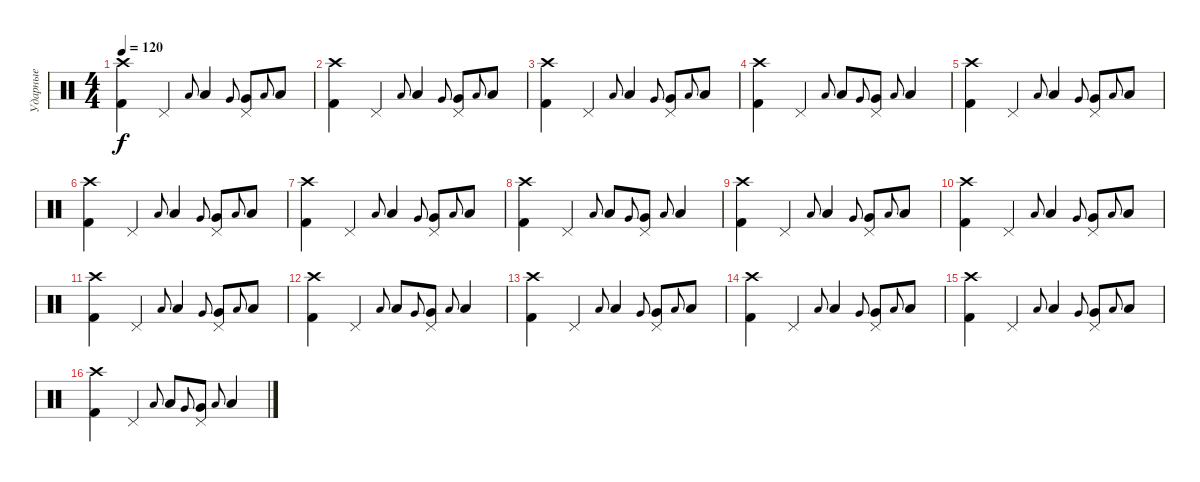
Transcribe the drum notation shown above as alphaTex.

\track ("Ударные" "Ударные") {instrument percussion}
\staff {score}
\articulation defaults
\ts (4 4)
\tempo 120
\clef neutral
\ks c
("Crash high (hit)" "Kick (hit) 2").4{dy f} "Pedal Hi-Hat (hit)".4 "Low Tom (hit)".8{gr onbeat} "Low Tom (hit)".4 "Very Low Tom (hit)".8{gr onbeat} ("Very Low Tom (hit)" "Pedal Hi-Hat (hit)").8 "Low Floor Tom (hit)".8{gr onbeat} "Low Floor Tom (hit)".8 |
("Crash high (hit)" "Kick (hit) 2").4 "Pedal Hi-Hat (hit)".4 "Low Tom (hit)".8{gr onbeat} "Low Tom (hit)".4 "Very Low Tom (hit)".8{gr onbeat} ("Very Low Tom (hit)" "Pedal Hi-Hat (hit)").8 "Low Floor Tom (hit)".8{gr onbeat} "Low Floor Tom (hit)".8 |
("Crash high (hit)" "Kick (hit) 2").4 "Pedal Hi-Hat (hit)".4 "Low Tom (hit)".8{gr onbeat} "Low Tom (hit)".4 "Very Low Tom (hit)".8{gr onbeat} ("Very Low Tom (hit)" "Pedal Hi-Hat (hit)").8 "Low Floor Tom (hit)".8{gr onbeat} "Low Floor Tom (hit)".8 |
("Crash high (hit)" "Kick (hit) 2").4 "Pedal Hi-Hat (hit)".4 "Low Tom (hit)".8{gr onbeat} "Low Tom (hit)".8 "Very Low Tom (hit)".8{gr onbeat} ("Very Low Tom (hit)" "Pedal Hi-Hat (hit)").8 "Low Floor Tom (hit)".8{gr onbeat} "Low Floor Tom (hit)".4 |
("Crash high (hit)" "Kick (hit) 2").4 "Pedal Hi-Hat (hit)".4 "Low Tom (hit)".8{gr onbeat} "Low Tom (hit)".4 "Very Low Tom (hit)".8{gr onbeat} ("Very Low Tom (hit)" "Pedal Hi-Hat (hit)").8 "Low Floor Tom (hit)".8{gr onbeat} "Low Floor Tom (hit)".8 |
("Crash high (hit)" "Kick (hit) 2").4 "Pedal Hi-Hat (hit)".4 "Low Tom (hit)".8{gr onbeat} "Low Tom (hit)".4 "Very Low Tom (hit)".8{gr onbeat} ("Very Low Tom (hit)" "Pedal Hi-Hat (hit)").8 "Low Floor Tom (hit)".8{gr onbeat} "Low Floor Tom (hit)".8 |
("Crash high (hit)" "Kick (hit) 2").4 "Pedal Hi-Hat (hit)".4 "Low Tom (hit)".8{gr onbeat} "Low Tom (hit)".4 "Very Low Tom (hit)".8{gr onbeat} ("Very Low Tom (hit)" "Pedal Hi-Hat (hit)").8 "Low Floor Tom (hit)".8{gr onbeat} "Low Floor Tom (hit)".8 |
("Crash high (hit)" "Kick (hit) 2").4 "Pedal Hi-Hat (hit)".4 "Low Tom (hit)".8{gr onbeat} "Low Tom (hit)".8 "Very Low Tom (hit)".8{gr onbeat} ("Very Low Tom (hit)" "Pedal Hi-Hat (hit)").8 "Low Floor Tom (hit)".8{gr onbeat} "Low Floor Tom (hit)".4 |
("Crash high (hit)" "Kick (hit) 2").4 "Pedal Hi-Hat (hit)".4 "Low Tom (hit)".8{gr onbeat} "Low Tom (hit)".4 "Very Low Tom (hit)".8{gr onbeat} ("Very Low Tom (hit)" "Pedal Hi-Hat (hit)").8 "Low Floor Tom (hit)".8{gr onbeat} "Low Floor Tom (hit)".8 |
("Crash high (hit)" "Kick (hit) 2").4 "Pedal Hi-Hat (hit)".4 "Low Tom (hit)".8{gr onbeat} "Low Tom (hit)".4 "Very Low Tom (hit)".8{gr onbeat} ("Very Low Tom (hit)" "Pedal Hi-Hat (hit)").8 "Low Floor Tom (hit)".8{gr onbeat} "Low Floor Tom (hit)".8 |
("Crash high (hit)" "Kick (hit) 2").4 "Pedal Hi-Hat (hit)".4 "Low Tom (hit)".8{gr onbeat} "Low Tom (hit)".4 "Very Low Tom (hit)".8{gr onbeat} ("Very Low Tom (hit)" "Pedal Hi-Hat (hit)").8 "Low Floor Tom (hit)".8{gr onbeat} "Low Floor Tom (hit)".8 |
("Crash high (hit)" "Kick (hit) 2").4 "Pedal Hi-Hat (hit)".4 "Low Tom (hit)".8{gr onbeat} "Low Tom (hit)".8 "Very Low Tom (hit)".8{gr onbeat} ("Very Low Tom (hit)" "Pedal Hi-Hat (hit)").8 "Low Floor Tom (hit)".8{gr onbeat} "Low Floor Tom (hit)".4 |
("Crash high (hit)" "Kick (hit) 2").4 "Pedal Hi-Hat (hit)".4 "Low Tom (hit)".8{gr onbeat} "Low Tom (hit)".4 "Very Low Tom (hit)".8{gr onbeat} ("Very Low Tom (hit)" "Pedal Hi-Hat (hit)").8 "Low Floor Tom (hit)".8{gr onbeat} "Low Floor Tom (hit)".8 |
("Crash high (hit)" "Kick (hit) 2").4 "Pedal Hi-Hat (hit)".4 "Low Tom (hit)".8{gr onbeat} "Low Tom (hit)".4 "Very Low Tom (hit)".8{gr onbeat} ("Very Low Tom (hit)" "Pedal Hi-Hat (hit)").8 "Low Floor Tom (hit)".8{gr onbeat} "Low Floor Tom (hit)".8 |
("Crash high (hit)" "Kick (hit) 2").4 "Pedal Hi-Hat (hit)".4 "Low Tom (hit)".8{gr onbeat} "Low Tom (hit)".4 "Very Low Tom (hit)".8{gr onbeat} ("Very Low Tom (hit)" "Pedal Hi-Hat (hit)").8 "Low Floor Tom (hit)".8{gr onbeat} "Low Floor Tom (hit)".8 |
("Crash high (hit)" "Kick (hit) 2").4 "Pedal Hi-Hat (hit)".4 "Low Tom (hit)".8{gr onbeat} "Low Tom (hit)".8 "Very Low Tom (hit)".8{gr onbeat} ("Very Low Tom (hit)" "Pedal Hi-Hat (hit)").8 "Low Floor Tom (hit)".8{gr onbeat} "Low Floor Tom (hit)".4
